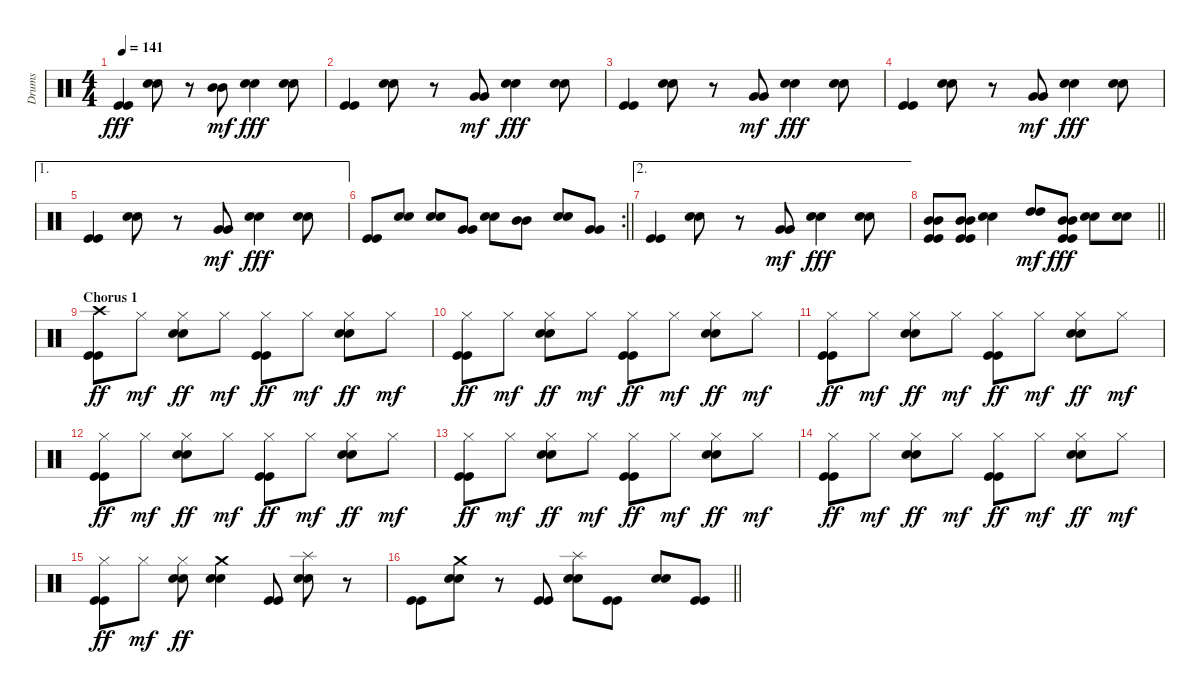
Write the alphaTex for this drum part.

\track ("Drums" "Drums") {instrument percussion}
\staff {score}
\articulation defaults
\ts (4 4)
\tempo 141
\clef neutral
\ks c
("Kick (hit)" "Kick (hit)").4{dy fff} ("Snare (hit) 2" "Snare (hit) 2").8 r.8 ("Mid Tom (hit)" "Mid Tom (hit)").8{dy mf} ("Snare (hit) 2" "Snare (hit) 2").4{dy fff} ("Snare (hit) 2" "Snare (hit) 2").8 |
("Kick (hit)" "Kick (hit)").4 ("Snare (hit) 2" "Snare (hit) 2").8 r.8 ("Very Low Tom (hit)" "Very Low Tom (hit)").8{dy mf} ("Snare (hit) 2" "Snare (hit) 2").4{dy fff} ("Snare (hit) 2" "Snare (hit) 2").8 |
("Kick (hit)" "Kick (hit)").4 ("Snare (hit) 2" "Snare (hit) 2").8 r.8 ("Very Low Tom (hit)" "Very Low Tom (hit)").8{dy mf} ("Snare (hit) 2" "Snare (hit) 2").4{dy fff} ("Snare (hit) 2" "Snare (hit) 2").8 |
("Kick (hit)" "Kick (hit)").4 ("Snare (hit) 2" "Snare (hit) 2").8 r.8 ("Very Low Tom (hit)" "Very Low Tom (hit)").8{dy mf} ("Snare (hit) 2" "Snare (hit) 2").4{dy fff} ("Snare (hit) 2" "Snare (hit) 2").8 |
\ae 1
("Kick (hit)" "Kick (hit)").4 ("Snare (hit) 2" "Snare (hit) 2").8 r.8 ("Very Low Tom (hit)" "Very Low Tom (hit)").8{dy mf} ("Snare (hit) 2" "Snare (hit) 2").4{dy fff} ("Snare (hit) 2" "Snare (hit) 2").8 |
\rc 2
\barLineRight lightlight
("Kick (hit)" "Kick (hit)").8 ("Snare (hit) 2" "Snare (hit) 2").8 ("Snare (hit) 2" "Snare (hit) 2").8 ("Very Low Tom (hit)" "Very Low Tom (hit)").8 ("Snare (hit) 2" "Snare (hit) 2").8 ("Mid Tom (hit)" "Mid Tom (hit)").8 ("Snare (hit) 2" "Snare (hit) 2").8 ("Very Low Tom (hit)" "Very Low Tom (hit)").8 |
\ae 2
("Kick (hit)" "Kick (hit)").4 ("Snare (hit) 2" "Snare (hit) 2").8 r.8 ("Very Low Tom (hit)" "Very Low Tom (hit)").8{dy mf} ("Snare (hit) 2" "Snare (hit) 2").4{dy fff} ("Snare (hit) 2" "Snare (hit) 2").8 |
\barLineRight lightlight
("Mid Tom (hit)" "Mid Tom (hit)" "Kick (hit)" "Kick (hit)").8 ("Mid Tom (hit)" "Mid Tom (hit)" "Kick (hit)" "Kick (hit)").8 ("Snare (hit) 2" "Snare (hit) 2").4 ("High Tom (hit)" "High Tom (hit)").8{dy mf} ("Mid Tom (hit)" "Mid Tom (hit)" "Kick (hit)" "Kick (hit)").8{dy fff} ("Snare (hit) 2" "Snare (hit) 2").8 ("Snare (hit) 2" "Snare (hit) 2").8 |
\section ("" "Chorus 1")
("Crash high (hit)" "Kick (hit)" "Kick (hit)").8{dy ff} "Hi-Hat (closed)".8{dy mf} ("Hi-Hat (closed)" "Snare (hit) 2" "Snare (hit) 2").8{dy ff} "Hi-Hat (closed)".8{dy mf} ("Hi-Hat (closed)" "Kick (hit)" "Kick (hit)").8{dy ff} "Hi-Hat (closed)".8{dy mf} ("Hi-Hat (closed)" "Snare (hit) 2" "Snare (hit) 2").8{dy ff} "Hi-Hat (closed)".8{dy mf} |
("Hi-Hat (closed)" "Kick (hit)" "Kick (hit)").8{dy ff} "Hi-Hat (closed)".8{dy mf} ("Hi-Hat (closed)" "Snare (hit) 2" "Snare (hit) 2").8{dy ff} "Hi-Hat (closed)".8{dy mf} ("Hi-Hat (closed)" "Kick (hit)" "Kick (hit)").8{dy ff} "Hi-Hat (closed)".8{dy mf} ("Hi-Hat (closed)" "Snare (hit) 2" "Snare (hit) 2").8{dy ff} "Hi-Hat (closed)".8{dy mf} |
("Hi-Hat (closed)" "Kick (hit)" "Kick (hit)").8{dy ff} "Hi-Hat (closed)".8{dy mf} ("Hi-Hat (closed)" "Snare (hit) 2" "Snare (hit) 2").8{dy ff} "Hi-Hat (closed)".8{dy mf} ("Hi-Hat (closed)" "Kick (hit)" "Kick (hit)").8{dy ff} "Hi-Hat (closed)".8{dy mf} ("Hi-Hat (closed)" "Snare (hit) 2" "Snare (hit) 2").8{dy ff} "Hi-Hat (closed)".8{dy mf} |
("Hi-Hat (closed)" "Kick (hit)" "Kick (hit)").8{dy ff} "Hi-Hat (closed)".8{dy mf} ("Hi-Hat (closed)" "Snare (hit) 2" "Snare (hit) 2").8{dy ff} "Hi-Hat (closed)".8{dy mf} ("Hi-Hat (closed)" "Kick (hit)" "Kick (hit)").8{dy ff} "Hi-Hat (closed)".8{dy mf} ("Hi-Hat (closed)" "Snare (hit) 2" "Snare (hit) 2").8{dy ff} "Hi-Hat (closed)".8{dy mf} |
("Hi-Hat (closed)" "Kick (hit)" "Kick (hit)").8{dy ff} "Hi-Hat (closed)".8{dy mf} ("Hi-Hat (closed)" "Snare (hit) 2" "Snare (hit) 2").8{dy ff} "Hi-Hat (closed)".8{dy mf} ("Hi-Hat (closed)" "Kick (hit)" "Kick (hit)").8{dy ff} "Hi-Hat (closed)".8{dy mf} ("Hi-Hat (closed)" "Snare (hit) 2" "Snare (hit) 2").8{dy ff} "Hi-Hat (closed)".8{dy mf} |
("Hi-Hat (closed)" "Kick (hit)" "Kick (hit)").8{dy ff} "Hi-Hat (closed)".8{dy mf} ("Hi-Hat (closed)" "Snare (hit) 2" "Snare (hit) 2").8{dy ff} "Hi-Hat (closed)".8{dy mf} ("Hi-Hat (closed)" "Kick (hit)" "Kick (hit)").8{dy ff} "Hi-Hat (closed)".8{dy mf} ("Hi-Hat (closed)" "Snare (hit) 2" "Snare (hit) 2").8{dy ff} "Hi-Hat (closed)".8{dy mf} |
("Hi-Hat (closed)" "Kick (hit)" "Kick (hit)").8{dy ff} "Hi-Hat (closed)".8{dy mf} ("Hi-Hat (closed)" "Snare (hit) 2" "Snare (hit) 2").8{dy ff} ("Crash medium (hit)" "Snare (hit) 2" "Snare (hit) 2").4 ("Kick (hit)" "Kick (hit)").8 ("Splash (hit)" "Snare (hit) 2" "Snare (hit) 2").8 r.8 |
\barLineRight lightlight
("Kick (hit)" "Kick (hit)").8 ("Crash medium (hit)" "Snare (hit) 2" "Snare (hit) 2").8 r.8 ("Kick (hit)" "Kick (hit)").8 ("Splash (hit)" "Snare (hit) 2" "Snare (hit) 2").8 ("Kick (hit)" "Kick (hit)").8 ("Snare (hit) 2" "Snare (hit) 2").8 ("Kick (hit)" "Kick (hit)").8
